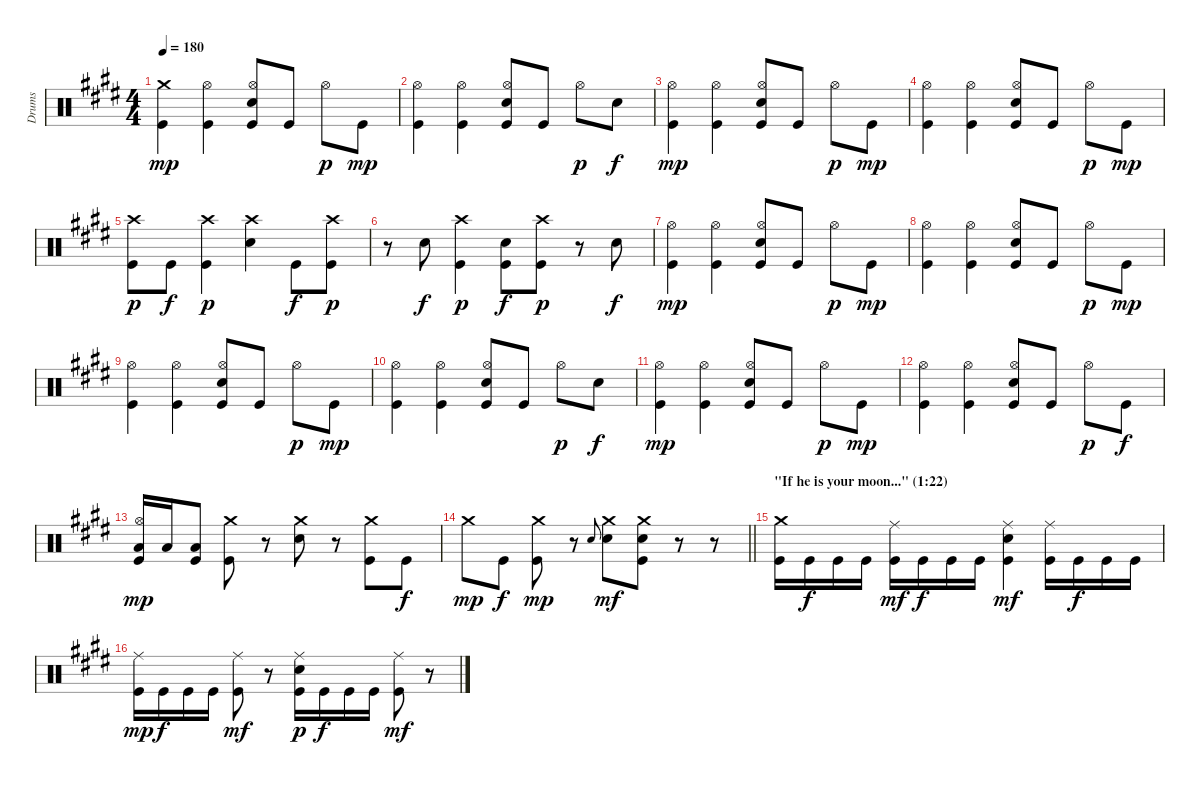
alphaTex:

\track ("Drums" "Drums") {instrument percussion}
\staff {score}
\articulation defaults
\ts (4 4)
\tempo 180
\clef neutral
\ks c#minor
("Crash medium (hit)" "Kick (hit)").4{dy mp} ("Hi-Hat (open)" "Kick (hit)").4 ("Hi-Hat (open)" "Snare (hit) 2" "Kick (hit)").8 "Kick (hit)".8 "Hi-Hat (open)".8{dy p} "Kick (hit)".8{dy mp} |
("Hi-Hat (open)" "Kick (hit)").4 ("Hi-Hat (open)" "Kick (hit)").4 ("Hi-Hat (open)" "Snare (hit) 2" "Kick (hit)").8 "Kick (hit)".8 "Hi-Hat (open)".8{dy p} "Snare (hit) 2".8{dy f} |
("Hi-Hat (open)" "Kick (hit)").4{dy mp} ("Hi-Hat (open)" "Kick (hit)").4 ("Hi-Hat (open)" "Snare (hit) 2" "Kick (hit)").8 "Kick (hit)".8 "Hi-Hat (open)".8{dy p} "Kick (hit)".8{dy mp} |
("Hi-Hat (open)" "Kick (hit)").4 ("Hi-Hat (open)" "Kick (hit)").4 ("Hi-Hat (open)" "Snare (hit) 2" "Kick (hit)").8 "Kick (hit)".8 "Hi-Hat (open)".8{dy p} "Kick (hit)".8{dy mp} |
("Crash high (hit)" "Kick (hit)").8{dy p} "Kick (hit)".8{dy f} ("Crash high (hit)" "Kick (hit)").4{dy p} ("Crash high (hit)" "Snare (hit) 2").4 "Kick (hit)".8{dy f} ("Crash high (hit)" "Kick (hit)").8{dy p} |
r.8 "Snare (hit) 2".8{dy f} ("Crash high (hit)" "Kick (hit)").4{dy p} ("Snare (hit) 2" "Kick (hit)").8{dy f} ("Crash high (hit)" "Kick (hit)").8{dy p} r.8 "Snare (hit) 2".8{dy f} |
("Hi-Hat (open)" "Kick (hit)").4{dy mp} ("Hi-Hat (open)" "Kick (hit)").4 ("Hi-Hat (open)" "Snare (hit) 2" "Kick (hit)").8 "Kick (hit)".8 "Hi-Hat (open)".8{dy p} "Kick (hit)".8{dy mp} |
("Hi-Hat (open)" "Kick (hit)").4 ("Hi-Hat (open)" "Kick (hit)").4 ("Hi-Hat (open)" "Snare (hit) 2" "Kick (hit)").8 "Kick (hit)".8 "Hi-Hat (open)".8{dy p} "Kick (hit)".8{dy mp} |
("Hi-Hat (open)" "Kick (hit)").4 ("Hi-Hat (open)" "Kick (hit)").4 ("Hi-Hat (open)" "Snare (hit) 2" "Kick (hit)").8 "Kick (hit)".8 "Hi-Hat (open)".8{dy p} "Kick (hit)".8{dy mp} |
("Hi-Hat (open)" "Kick (hit)").4 ("Hi-Hat (open)" "Kick (hit)").4 ("Hi-Hat (open)" "Snare (hit) 2" "Kick (hit)").8 "Kick (hit)".8 "Hi-Hat (open)".8{dy p} "Snare (hit) 2".8{dy f} |
("Hi-Hat (open)" "Kick (hit)").4{dy mp} ("Hi-Hat (open)" "Kick (hit)").4 ("Hi-Hat (open)" "Snare (hit) 2" "Kick (hit)").8 "Kick (hit)".8 "Hi-Hat (open)".8{dy p} "Kick (hit)".8{dy mp} |
("Hi-Hat (open)" "Kick (hit)").4 ("Hi-Hat (open)" "Kick (hit)").4 ("Hi-Hat (open)" "Snare (hit) 2" "Kick (hit)").8 "Kick (hit)".8 "Hi-Hat (open)".8{dy p} "Kick (hit)".8{dy f} |
("Hi-Hat (open)" "Low Floor Tom (hit)" "Kick (hit)").16{dy mp} "Low Floor Tom (hit)".16 ("Low Floor Tom (hit)" "Kick (hit)").8 ("Crash medium (hit)" "Kick (hit)").8 r.8 ("Crash medium (hit)" "Snare (hit) 2").8 r.8 ("Crash medium (hit)" "Kick (hit)").8 "Kick (hit)".8{dy f} |
\barLineRight lightlight "Crash medium (hit)".8{dy mp} "Kick (hit)".8{dy f}
("Crash medium (hit)" "Kick (hit)").8{dy mp} r.8 "Snare (hit) 2".8{gr onbeat} ("Crash medium (hit)" "Snare (hit) 2").8{dy mf} ("Crash medium (hit)" "Snare (hit) 2" "Kick (hit)").8 r.8 r.8 |
\section ("" "\"If he is your moon...\" (1:22)")
("Crash medium (hit)" "Kick (hit)").16 "Kick (hit)".16{dy f} "Kick (hit)".16 "Kick (hit)".16 ("Ride (middle)" "Kick (hit)").16{dy mf} "Kick (hit)".16{dy f} "Kick (hit)".16 "Kick (hit)".16 ("Ride (middle)" "Snare (hit) 2" "Kick (hit)").4{dy mf} ("Ride (middle)" "Kick (hit)").16 "Kick (hit)".16{dy f} "Kick (hit)".16 "Kick (hit)".16 |
("Ride (middle)" "Kick (hit)").16{dy mp} "Kick (hit)".16{dy f} "Kick (hit)".16 "Kick (hit)".16 ("Ride (middle)" "Kick (hit)").8{dy mf} r.8 ("Ride (middle)" "Snare (hit) 2" "Kick (hit)").16{dy p} "Kick (hit)".16{dy f} "Kick (hit)".16 "Kick (hit)".16 ("Ride (middle)" "Kick (hit)").8{dy mf} r.8
